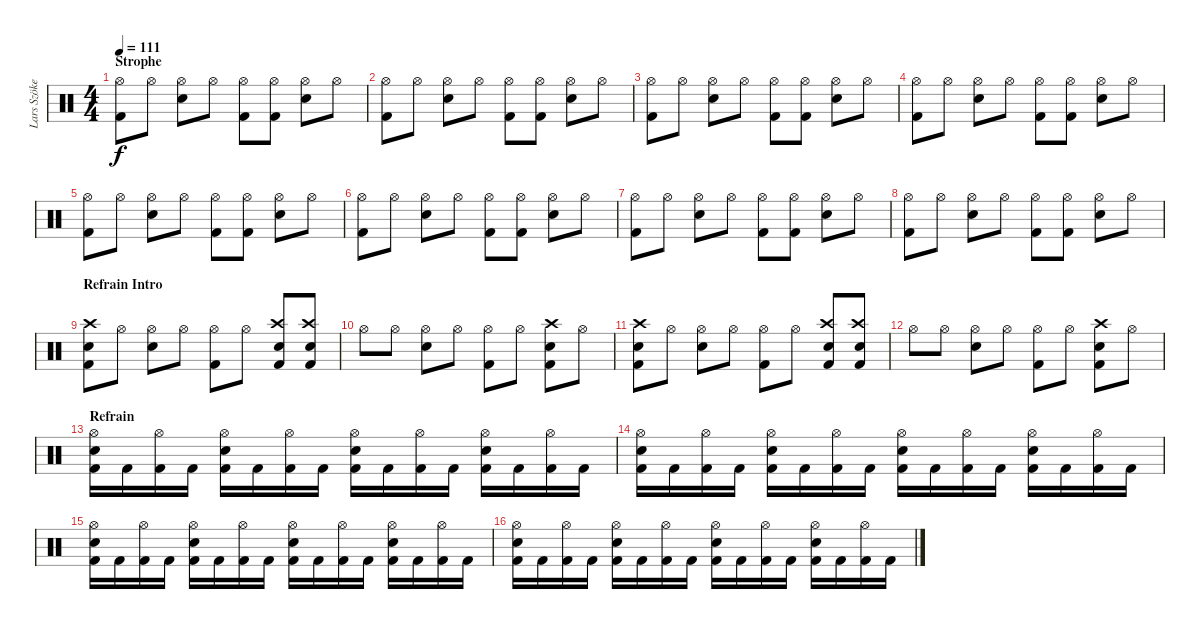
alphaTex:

\track ("Lars Szöke/Horgh" "Lars Szöke") {instrument percussion}
\staff {score}
\articulation defaults
\ts (4 4)
\section ("" "Strophe")
\tempo 111
\clef neutral
\ks c
("Hi-Hat (open)" "Kick (hit) 2").8{dy f} "Hi-Hat (open)".8 ("Hi-Hat (open)" "Snare (hit) 2").8 "Hi-Hat (open)".8 ("Hi-Hat (open)" "Kick (hit) 2").8 ("Hi-Hat (open)" "Kick (hit) 2").8 ("Hi-Hat (open)" "Snare (hit) 2").8 "Hi-Hat (open)".8 |
("Hi-Hat (open)" "Kick (hit) 2").8 "Hi-Hat (open)".8 ("Hi-Hat (open)" "Snare (hit) 2").8 "Hi-Hat (open)".8 ("Hi-Hat (open)" "Kick (hit) 2").8 ("Hi-Hat (open)" "Kick (hit) 2").8 ("Hi-Hat (open)" "Snare (hit) 2").8 "Hi-Hat (open)".8 |
("Hi-Hat (open)" "Kick (hit) 2").8 "Hi-Hat (open)".8 ("Hi-Hat (open)" "Snare (hit) 2").8 "Hi-Hat (open)".8 ("Hi-Hat (open)" "Kick (hit) 2").8 ("Hi-Hat (open)" "Kick (hit) 2").8 ("Hi-Hat (open)" "Snare (hit) 2").8 "Hi-Hat (open)".8 |
("Hi-Hat (open)" "Kick (hit) 2").8 "Hi-Hat (open)".8 ("Hi-Hat (open)" "Snare (hit) 2").8 "Hi-Hat (open)".8 ("Hi-Hat (open)" "Kick (hit) 2").8 ("Hi-Hat (open)" "Kick (hit) 2").8 ("Hi-Hat (open)" "Snare (hit) 2").8 "Hi-Hat (open)".8 |
("Hi-Hat (open)" "Kick (hit) 2").8 "Hi-Hat (open)".8 ("Hi-Hat (open)" "Snare (hit) 2").8 "Hi-Hat (open)".8 ("Hi-Hat (open)" "Kick (hit) 2").8 ("Hi-Hat (open)" "Kick (hit) 2").8 ("Hi-Hat (open)" "Snare (hit) 2").8 "Hi-Hat (open)".8 |
("Hi-Hat (open)" "Kick (hit) 2").8 "Hi-Hat (open)".8 ("Hi-Hat (open)" "Snare (hit) 2").8 "Hi-Hat (open)".8 ("Hi-Hat (open)" "Kick (hit) 2").8 ("Hi-Hat (open)" "Kick (hit) 2").8 ("Hi-Hat (open)" "Snare (hit) 2").8 "Hi-Hat (open)".8 |
("Hi-Hat (open)" "Kick (hit) 2").8 "Hi-Hat (open)".8 ("Hi-Hat (open)" "Snare (hit) 2").8 "Hi-Hat (open)".8 ("Hi-Hat (open)" "Kick (hit) 2").8 ("Hi-Hat (open)" "Kick (hit) 2").8 ("Hi-Hat (open)" "Snare (hit) 2").8 "Hi-Hat (open)".8 |
("Hi-Hat (open)" "Kick (hit) 2").8 "Hi-Hat (open)".8 ("Hi-Hat (open)" "Snare (hit) 2").8 "Hi-Hat (open)".8 ("Hi-Hat (open)" "Kick (hit) 2").8 ("Hi-Hat (open)" "Kick (hit) 2").8 ("Hi-Hat (open)" "Snare (hit) 2").8 "Hi-Hat (open)".8 |
\section ("" "Refrain Intro")
("Crash high (hit)" "Electric Snare (hit)" "Kick (hit) 2").8 "Hi-Hat (open)".8 ("Hi-Hat (open)" "Snare (hit) 2").8 "Hi-Hat (open)".8 ("Hi-Hat (open)" "Kick (hit) 2").8 "Hi-Hat (open)".8 ("Crash high (hit)" "Electric Snare (hit)" "Kick (hit) 2").8 ("Crash high (hit)" "Electric Snare (hit)" "Kick (hit) 2").8 |
"Hi-Hat (open)".8 "Hi-Hat (open)".8 ("Hi-Hat (open)" "Snare (hit) 2").8 "Hi-Hat (open)".8 ("Hi-Hat (open)" "Kick (hit) 2").8 "Hi-Hat (open)".8 ("Crash high (hit)" "Electric Snare (hit)" "Kick (hit) 2").8 "Hi-Hat (open)".8 |
("Crash high (hit)" "Electric Snare (hit)" "Kick (hit) 2").8 "Hi-Hat (open)".8 ("Hi-Hat (open)" "Snare (hit) 2").8 "Hi-Hat (open)".8 ("Hi-Hat (open)" "Kick (hit) 2").8 "Hi-Hat (open)".8 ("Crash high (hit)" "Electric Snare (hit)" "Kick (hit) 2").8 ("Crash high (hit)" "Electric Snare (hit)" "Kick (hit) 2").8 |
"Hi-Hat (open)".8 "Hi-Hat (open)".8 ("Hi-Hat (open)" "Snare (hit) 2").8 "Hi-Hat (open)".8 ("Hi-Hat (open)" "Kick (hit) 2").8 "Hi-Hat (open)".8 ("Crash high (hit)" "Electric Snare (hit)" "Kick (hit) 2").8 "Hi-Hat (open)".8 |
\section ("" "Refrain")
("Hi-Hat (open)" "Snare (hit) 2" "Kick (hit) 2").16 "Kick (hit) 2".16 ("Hi-Hat (open)" "Kick (hit) 2").16 "Kick (hit) 2".16 ("Hi-Hat (open)" "Snare (hit) 2" "Kick (hit) 2").16 "Kick (hit) 2".16 ("Hi-Hat (open)" "Kick (hit) 2").16 "Kick (hit) 2".16 ("Hi-Hat (open)" "Snare (hit) 2" "Kick (hit) 2").16 "Kick (hit) 2".16 ("Hi-Hat (open)" "Kick (hit) 2").16 "Kick (hit) 2".16 ("Hi-Hat (open)" "Snare (hit) 2" "Kick (hit) 2").16 "Kick (hit) 2".16 ("Hi-Hat (open)" "Kick (hit) 2").16 "Kick (hit) 2".16 |
("Hi-Hat (open)" "Snare (hit) 2" "Kick (hit) 2").16 "Kick (hit) 2".16 ("Hi-Hat (open)" "Kick (hit) 2").16 "Kick (hit) 2".16 ("Hi-Hat (open)" "Snare (hit) 2" "Kick (hit) 2").16 "Kick (hit) 2".16 ("Hi-Hat (open)" "Kick (hit) 2").16 "Kick (hit) 2".16 ("Hi-Hat (open)" "Snare (hit) 2" "Kick (hit) 2").16 "Kick (hit) 2".16 ("Hi-Hat (open)" "Kick (hit) 2").16 "Kick (hit) 2".16 ("Hi-Hat (open)" "Snare (hit) 2" "Kick (hit) 2").16 "Kick (hit) 2".16 ("Hi-Hat (open)" "Kick (hit) 2").16 "Kick (hit) 2".16 |
("Hi-Hat (open)" "Snare (hit) 2" "Kick (hit) 2").16 "Kick (hit) 2".16 ("Hi-Hat (open)" "Kick (hit) 2").16 "Kick (hit) 2".16 ("Hi-Hat (open)" "Snare (hit) 2" "Kick (hit) 2").16 "Kick (hit) 2".16 ("Hi-Hat (open)" "Kick (hit) 2").16 "Kick (hit) 2".16 ("Hi-Hat (open)" "Snare (hit) 2" "Kick (hit) 2").16 "Kick (hit) 2".16 ("Hi-Hat (open)" "Kick (hit) 2").16 "Kick (hit) 2".16 ("Hi-Hat (open)" "Snare (hit) 2" "Kick (hit) 2").16 "Kick (hit) 2".16 ("Hi-Hat (open)" "Kick (hit) 2").16 "Kick (hit) 2".16 |
("Hi-Hat (open)" "Snare (hit) 2" "Kick (hit) 2").16 "Kick (hit) 2".16 ("Hi-Hat (open)" "Kick (hit) 2").16 "Kick (hit) 2".16 ("Hi-Hat (open)" "Snare (hit) 2" "Kick (hit) 2").16 "Kick (hit) 2".16 ("Hi-Hat (open)" "Kick (hit) 2").16 "Kick (hit) 2".16 ("Hi-Hat (open)" "Snare (hit) 2" "Kick (hit) 2").16 "Kick (hit) 2".16 ("Hi-Hat (open)" "Kick (hit) 2").16 "Kick (hit) 2".16 ("Hi-Hat (open)" "Snare (hit) 2" "Kick (hit) 2").16 "Kick (hit) 2".16 ("Hi-Hat (open)" "Kick (hit) 2").16 "Kick (hit) 2".16
